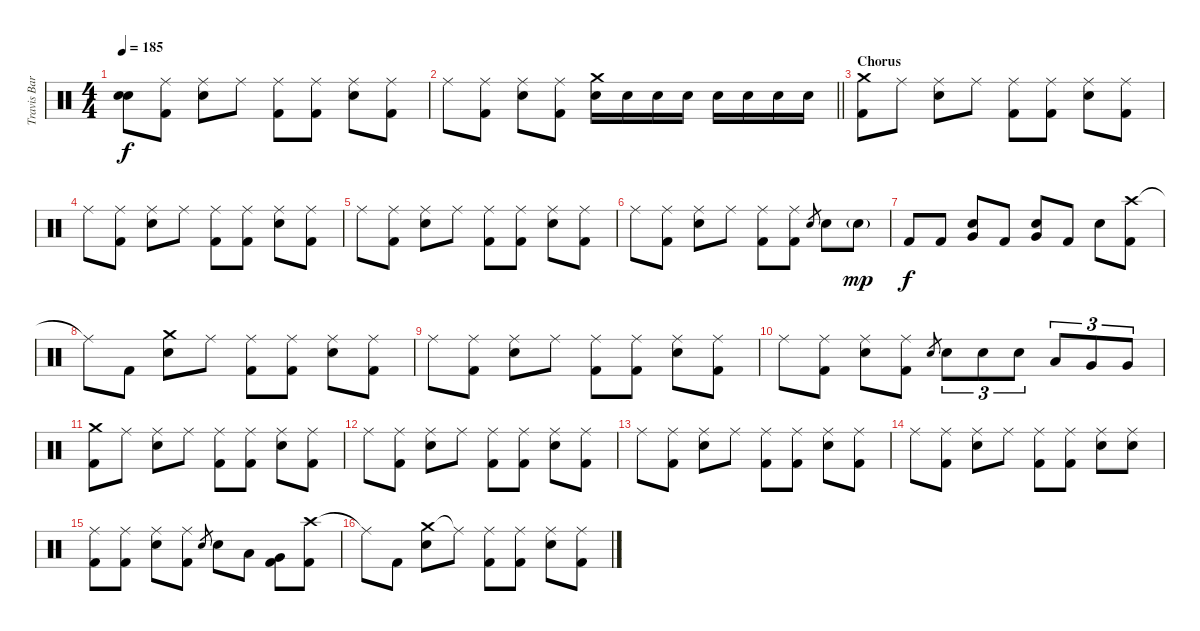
\track ("Travis Barker - Drums" "Travis Bar") {instrument percussion}
\staff {score}
\articulation defaults
\ts (4 4)
\tempo 185
\clef neutral
\ks c
("Snare (hit)"{t} "Snare (hit)"{t}).8{dy f} ("Ride (middle)" "Kick (hit) 2").8 ("Ride (middle)" "Electric Snare (hit)").8 "Ride (middle)".8 ("Ride (middle)" "Kick (hit) 2").8 ("Ride (middle)" "Kick (hit) 2").8 ("Ride (middle)" "Electric Snare (hit)").8 ("Ride (middle)" "Kick (hit) 2").8 |
\barLineRight lightlight "Ride (middle)".8
("Ride (middle)" "Kick (hit) 2").8 ("Ride (middle)" "Electric Snare (hit)").8 ("Ride (middle)" "Kick (hit) 2").8 ("Crash medium (hit)" "Electric Snare (hit)").16 "Electric Snare (hit)".16 "Electric Snare (hit)".16 "Electric Snare (hit)".16 "Electric Snare (hit)".16 "Electric Snare (hit)".16 "Electric Snare (hit)".16 "Electric Snare (hit)".16 |
\section ("" "Chorus")
("Crash medium (hit)" "Kick (hit) 2").8 "Ride (middle)".8 ("Ride (middle)" "Electric Snare (hit)").8 "Ride (middle)".8 ("Ride (middle)" "Kick (hit) 2").8 ("Ride (middle)" "Kick (hit) 2").8 ("Ride (middle)" "Electric Snare (hit)").8 ("Ride (middle)" "Kick (hit) 2").8 |
"Ride (middle)".8 ("Ride (middle)" "Kick (hit) 2").8 ("Ride (middle)" "Electric Snare (hit)").8 "Ride (middle)".8 ("Ride (middle)" "Kick (hit) 2").8 ("Ride (middle)" "Kick (hit) 2").8 ("Ride (middle)" "Electric Snare (hit)").8 ("Ride (middle)" "Kick (hit) 2").8 |
"Ride (middle)".8 ("Ride (middle)" "Kick (hit) 2").8 ("Ride (middle)" "Electric Snare (hit)").8 "Ride (middle)".8 ("Ride (middle)" "Kick (hit) 2").8 ("Ride (middle)" "Kick (hit) 2").8 ("Ride (middle)" "Electric Snare (hit)").8 ("Ride (middle)" "Kick (hit) 2").8 |
"Ride (middle)".8 ("Ride (middle)" "Kick (hit) 2").8 ("Ride (middle)" "Electric Snare (hit)").8 "Ride (middle)".8 ("Ride (middle)" "Kick (hit) 2").8 ("Ride (middle)" "Kick (hit) 2").8 "Electric Snare (hit)".8{gr} "Electric Snare (hit)".8 "Electric Snare (hit)"{g}.8{dy mp} |
"Kick (hit) 2".8{dy f} "Kick (hit) 2".8 ("Very Low Tom (hit)" "Electric Snare (hit)").8 "Kick (hit) 2".8 ("Very Low Tom (hit)" "Electric Snare (hit)").8 "Kick (hit) 2".8 "Electric Snare (hit)".8 ("Crash high (hit)" "Kick (hit) 2").8 |
"Ride (middle)"{t}.8 "Kick (hit) 2".8 ("Crash medium (hit)" "Electric Snare (hit)").8 "Ride (middle)".8 ("Ride (middle)" "Kick (hit) 2").8 ("Ride (middle)" "Kick (hit) 2").8 ("Ride (middle)" "Electric Snare (hit)").8 ("Ride (middle)" "Kick (hit) 2").8 |
"Ride (middle)".8 ("Ride (middle)" "Kick (hit) 2").8 ("Ride (middle)" "Electric Snare (hit)").8 "Ride (middle)".8 ("Ride (middle)" "Kick (hit) 2").8 ("Ride (middle)" "Kick (hit) 2").8 ("Ride (middle)" "Electric Snare (hit)").8 ("Ride (middle)" "Kick (hit) 2").8 |
"Ride (middle)".8 ("Ride (middle)" "Kick (hit) 2").8 ("Ride (middle)" "Electric Snare (hit)").8 ("Ride (middle)" "Kick (hit) 2").8 "Electric Snare (hit)".8{gr} "Electric Snare (hit)".8{tu (3 2)} "Electric Snare (hit)".8{tu (3 2)} "Electric Snare (hit)".8{tu (3 2)} "Low Tom (hit)".8{tu (3 2)} "Very Low Tom (hit)".8{tu (3 2)} "Very Low Tom (hit)".8{tu (3 2)} |
("Crash medium (hit)" "Kick (hit) 2").8 "Ride (middle)".8 ("Ride (middle)" "Electric Snare (hit)").8 "Ride (middle)".8 ("Ride (middle)" "Kick (hit) 2").8 ("Ride (middle)" "Kick (hit) 2").8 ("Ride (middle)" "Electric Snare (hit)").8 ("Ride (middle)" "Kick (hit) 2").8 |
"Ride (middle)".8 ("Ride (middle)" "Kick (hit) 2").8 ("Ride (middle)" "Electric Snare (hit)").8 "Ride (middle)".8 ("Ride (middle)" "Kick (hit) 2").8 ("Ride (middle)" "Kick (hit) 2").8 ("Ride (middle)" "Electric Snare (hit)").8 ("Ride (middle)" "Kick (hit) 2").8 |
"Ride (middle)".8 ("Ride (middle)" "Kick (hit) 2").8 ("Ride (middle)" "Electric Snare (hit)").8 "Ride (middle)".8 ("Ride (middle)" "Kick (hit) 2").8 ("Ride (middle)" "Kick (hit) 2").8 ("Ride (middle)" "Electric Snare (hit)").8 ("Ride (middle)" "Kick (hit) 2").8 |
"Ride (middle)".8 ("Ride (middle)" "Kick (hit) 2").8 ("Ride (middle)" "Electric Snare (hit)").8 "Ride (middle)".8 ("Ride (middle)" "Kick (hit) 2").8 ("Ride (middle)" "Kick (hit) 2").8 ("Ride (middle)" "Electric Snare (hit)").8 ("Ride (middle)" "Electric Snare (hit)").8 |
("Ride (middle)" "Kick (hit) 2").8 ("Ride (middle)" "Kick (hit) 2").8 ("Ride (middle)" "Electric Snare (hit)").8 ("Ride (middle)" "Kick (hit) 2").8 "Electric Snare (hit)".8{gr} "Electric Snare (hit)".8 "Low Tom (hit)".8 ("Very Low Tom (hit)" "Kick (hit) 2").8 ("Crash high (hit)" "Kick (hit) 2").8 |
"Ride (middle)"{t}.8 "Kick (hit) 2".8 ("Crash medium (hit)" "Electric Snare (hit)").8 "Ride (middle)"{t}.8 ("Ride (middle)" "Kick (hit) 2").8 ("Ride (middle)" "Kick (hit) 2").8 ("Ride (middle)" "Electric Snare (hit)").8 ("Ride (middle)" "Kick (hit) 2").8
